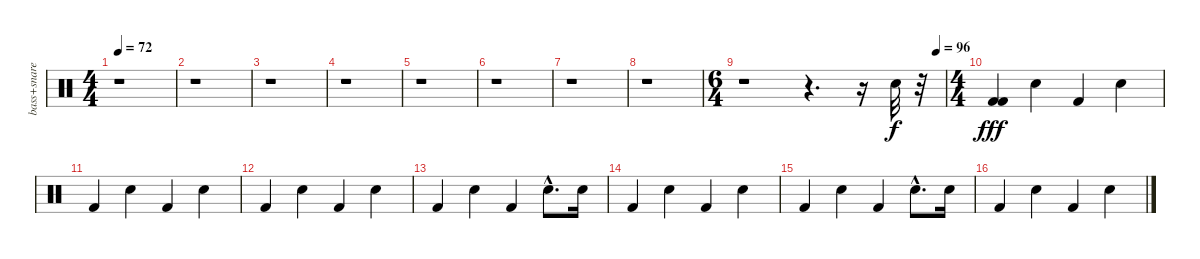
\track ("bass+snare" "bass+snare") {instrument percussion}
\staff {score}
\articulation defaults
\ts (4 4)
\tempo 72
\clef neutral
\ks c
r.1{dy f} |
r.1 |
r.1 |
r.1 |
r.1 |
r.1 |
r.1 |
r.1 |
\ts (6 4)
\tempo (96 0.9583333333333334)
r.1 r.4{d} r.16 "Snare (hit) 2".32 r.32 |
\ts (4 4)
("Kick (hit) 2" "Kick (hit) 2").4{dy fff} "Snare (hit) 2".4 "Kick (hit) 2".4 "Snare (hit) 2".4 |
"Kick (hit) 2".4 "Snare (hit) 2".4 "Kick (hit) 2".4 "Snare (hit) 2".4 |
"Kick (hit) 2".4 "Snare (hit) 2".4 "Kick (hit) 2".4 "Snare (hit) 2".4 |
"Kick (hit) 2".4 "Snare (hit) 2".4 "Kick (hit) 2".4 "Snare (hit) 2"{hac}.8{d} "Snare (hit) 2".16 |
"Kick (hit) 2".4 "Snare (hit) 2".4 "Kick (hit) 2".4 "Snare (hit) 2".4 |
"Kick (hit) 2".4 "Snare (hit) 2".4 "Kick (hit) 2".4 "Snare (hit) 2"{hac}.8{d} "Snare (hit) 2".16 |
"Kick (hit) 2".4 "Snare (hit) 2".4 "Kick (hit) 2".4 "Snare (hit) 2".4
